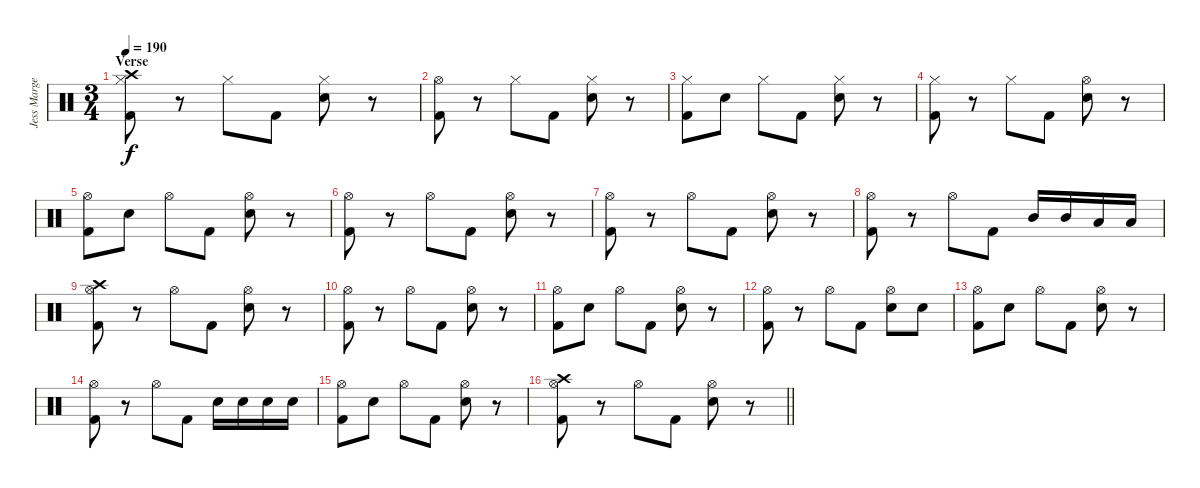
\track ("Jess Margera" "Jess Marge") {instrument percussion}
\staff {score}
\articulation defaults
\ts (3 4)
\section ("" "Verse")
\tempo 190
\clef neutral
\ks c
("Crash high (hit)" "Hi-Hat (closed)" "Kick (hit) 2").8{dy f} r.8 "Hi-Hat (closed)".8 "Kick (hit) 2".8 ("Hi-Hat (closed)" "Electric Snare (hit)").8 r.8 |
("Hi-Hat (open)" "Kick (hit) 2").8 r.8 "Hi-Hat (closed)".8 "Kick (hit) 2".8 ("Hi-Hat (closed)" "Electric Snare (hit)").8 r.8 |
("Hi-Hat (closed)" "Kick (hit) 2").8 "Electric Snare (hit)".8 "Hi-Hat (closed)".8 "Kick (hit) 2".8 ("Hi-Hat (closed)" "Electric Snare (hit)").8 r.8 |
("Hi-Hat (closed)" "Kick (hit) 2").8 r.8 "Hi-Hat (closed)".8 "Kick (hit) 2".8 ("Hi-Hat (open)" "Electric Snare (hit)").8 r.8 |
("Hi-Hat (open)" "Kick (hit) 2").8 "Electric Snare (hit)".8 "Hi-Hat (open)".8 "Kick (hit) 2".8 ("Hi-Hat (open)" "Electric Snare (hit)").8 r.8 |
("Hi-Hat (open)" "Kick (hit) 2").8 r.8 "Hi-Hat (open)".8 "Kick (hit) 2".8 ("Hi-Hat (open)" "Electric Snare (hit)").8 r.8 |
("Hi-Hat (open)" "Kick (hit) 2").8 r.8 "Hi-Hat (open)".8 "Kick (hit) 2".8 ("Hi-Hat (open)" "Electric Snare (hit)").8 r.8 |
("Hi-Hat (open)" "Kick (hit) 2").8 r.8 "Hi-Hat (open)".8 "Kick (hit) 2".8 "Mid Tom (hit)".16 "Mid Tom (hit)".16 "Low Tom (hit)".16 "Low Tom (hit)".16 |
("Crash high (hit)" "Hi-Hat (open)" "Kick (hit) 2").8 r.8 "Hi-Hat (open)".8 "Kick (hit) 2".8 ("Hi-Hat (open)" "Electric Snare (hit)").8 r.8 |
("Hi-Hat (open)" "Kick (hit) 2").8 r.8 "Hi-Hat (open)".8 "Kick (hit) 2".8 ("Hi-Hat (open)" "Electric Snare (hit)").8 r.8 |
("Hi-Hat (open)" "Kick (hit) 2").8 "Electric Snare (hit)".8 "Hi-Hat (open)".8 "Kick (hit) 2".8 ("Hi-Hat (open)" "Electric Snare (hit)").8 r.8 |
("Hi-Hat (open)" "Kick (hit) 2").8 r.8 "Hi-Hat (open)".8 "Kick (hit) 2".8 ("Hi-Hat (open)" "Electric Snare (hit)").8 "Electric Snare (hit)".8 |
("Hi-Hat (open)" "Kick (hit) 2").8 "Electric Snare (hit)".8 "Hi-Hat (open)".8 "Kick (hit) 2".8 ("Hi-Hat (open)" "Electric Snare (hit)").8 r.8 |
("Hi-Hat (open)" "Kick (hit) 2").8 r.8 "Hi-Hat (open)".8 "Kick (hit) 2".8 "Electric Snare (hit)".16 "Electric Snare (hit)".16 "Electric Snare (hit)".16 "Electric Snare (hit)".16 |
("Hi-Hat (open)" "Kick (hit) 2").8 "Electric Snare (hit)".8 "Hi-Hat (open)".8 "Kick (hit) 2".8 ("Hi-Hat (open)" "Electric Snare (hit)").8 r.8 |
\barLineRight lightlight
("Crash high (hit)" "Hi-Hat (open)" "Kick (hit) 2").8 r.8 "Hi-Hat (open)".8 "Kick (hit) 2".8 ("Hi-Hat (open)" "Electric Snare (hit)").8 r.8
